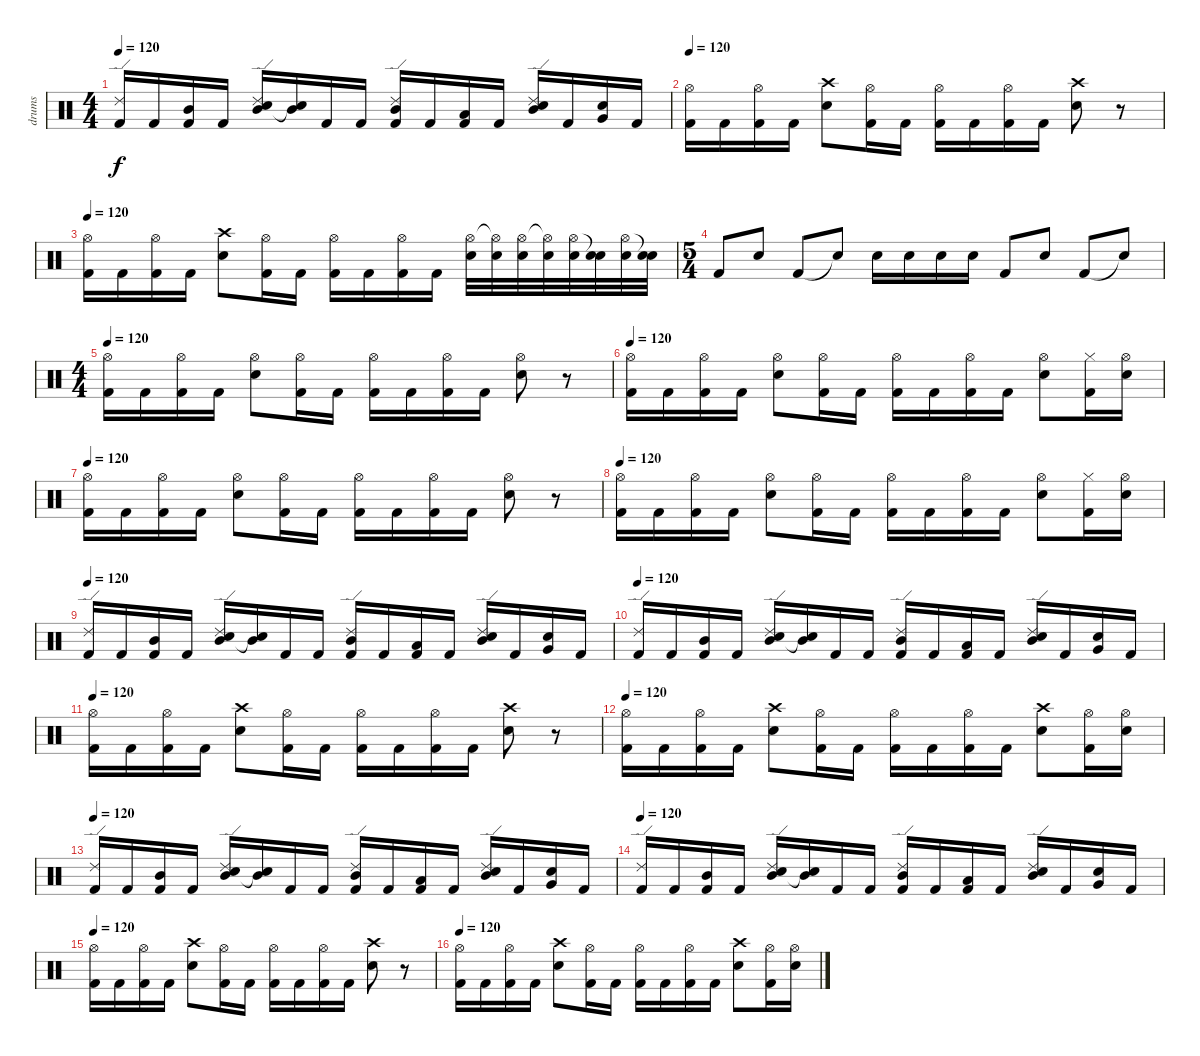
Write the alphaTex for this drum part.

\track ("drums" "drums") {instrument percussion}
\staff {score}
\articulation defaults
\ts (4 4)
\tempo 120
\clef neutral
\ks c
("Ride (edge) 2" "Kick (hit) 2").16{dy f} "Kick (hit) 2".16 ("Mid Tom (hit)" "Kick (hit) 2").16 "Kick (hit) 2".16 ("Ride (edge) 2" "Mid Tom (hit)" "Electric Snare (hit)").16 ("Mid Tom (hit)" "Snare (hit)"{t}).16 "Kick (hit) 2".16 "Kick (hit) 2".16 ("Ride (edge) 2" "Mid Tom (hit)" "Kick (hit) 2").16 "Kick (hit) 2".16 ("Low Tom (hit)" "Kick (hit) 2").16 "Kick (hit) 2".16 ("Ride (edge) 2" "Mid Tom (hit)" "Electric Snare (hit)").16 "Kick (hit) 2".16 ("Very Low Tom (hit)" "Electric Snare (hit)").16 "Kick (hit) 2".16 |
\tempo 120
("Hi-Hat (open)" "Kick (hit) 2").16 "Kick (hit) 2".16 ("Hi-Hat (open)" "Kick (hit) 2").16 "Kick (hit) 2".16 ("Crash high (hit)" "Electric Snare (hit)").8 ("Hi-Hat (open)" "Kick (hit) 2").16 "Kick (hit) 2".16 ("Hi-Hat (open)" "Kick (hit) 2").16 "Kick (hit) 2".16 ("Hi-Hat (open)" "Kick (hit) 2").16 "Kick (hit) 2".16 ("Crash high (hit)" "Electric Snare (hit)").8 r.8 |
\tempo 120
("Hi-Hat (open)" "Kick (hit) 2").16 "Kick (hit) 2".16 ("Hi-Hat (open)" "Kick (hit) 2").16 "Kick (hit) 2".16 ("Crash high (hit)" "Electric Snare (hit)").8 ("Hi-Hat (open)" "Kick (hit) 2").16 "Kick (hit) 2".16 ("Hi-Hat (open)" "Kick (hit) 2").16 "Kick (hit) 2".16 ("Hi-Hat (open)" "Kick (hit) 2").16 "Kick (hit) 2".16 ("Hi-Hat (open)" "Electric Snare (hit)").32 ("Hi-Hat (open)"{t} "Electric Snare (hit)").32 ("Hi-Hat (open)" "Electric Snare (hit)").32 ("Hi-Hat (open)"{t} "Electric Snare (hit)").32 ("Hi-Hat (open)" "Electric Snare (hit)").32 ("Snare (hit)"{t} "Electric Snare (hit)").32 ("Hi-Hat (open)" "Electric Snare (hit)").32 ("Snare (hit)"{t} "Electric Snare (hit)").32 |
\ts (5 4)
"Kick (hit) 2".8 "Electric Snare (hit)".8 "Kick (hit) 2".8 "Electric Snare (hit)"{t}.8 "Electric Snare (hit)".16 "Electric Snare (hit)".16 "Electric Snare (hit)".16 "Electric Snare (hit)".16 "Kick (hit) 2".8 "Electric Snare (hit)".8 "Kick (hit) 2".8 "Electric Snare (hit)"{t}.8 |
\ts (4 4)
\tempo 120
("Hi-Hat (open)" "Kick (hit) 2").16 "Kick (hit) 2".16 ("Hi-Hat (open)" "Kick (hit) 2").16 "Kick (hit) 2".16 ("Hi-Hat (open)" "Electric Snare (hit)").8 ("Hi-Hat (open)" "Kick (hit) 2").16 "Kick (hit) 2".16 ("Hi-Hat (open)" "Kick (hit) 2").16 "Kick (hit) 2".16 ("Hi-Hat (open)" "Kick (hit) 2").16 "Kick (hit) 2".16 ("Hi-Hat (open)" "Electric Snare (hit)").8 r.8 |
\tempo 120
("Hi-Hat (open)" "Kick (hit) 2").16 "Kick (hit) 2".16 ("Hi-Hat (open)" "Kick (hit) 2").16 "Kick (hit) 2".16 ("Hi-Hat (open)" "Electric Snare (hit)").8 ("Hi-Hat (open)" "Kick (hit) 2").16 "Kick (hit) 2".16 ("Hi-Hat (open)" "Kick (hit) 2").16 "Kick (hit) 2".16 ("Hi-Hat (open)" "Kick (hit) 2").16 "Kick (hit) 2".16 ("Hi-Hat (open)" "Electric Snare (hit)").8 ("Hi-Hat (closed)" "Kick (hit) 2").16 ("Hi-Hat (open)" "Electric Snare (hit)").16 |
\tempo 120
("Hi-Hat (open)" "Kick (hit) 2").16 "Kick (hit) 2".16 ("Hi-Hat (open)" "Kick (hit) 2").16 "Kick (hit) 2".16 ("Hi-Hat (open)" "Electric Snare (hit)").8 ("Hi-Hat (open)" "Kick (hit) 2").16 "Kick (hit) 2".16 ("Hi-Hat (open)" "Kick (hit) 2").16 "Kick (hit) 2".16 ("Hi-Hat (open)" "Kick (hit) 2").16 "Kick (hit) 2".16 ("Hi-Hat (open)" "Electric Snare (hit)").8 r.8 |
\tempo 120
("Hi-Hat (open)" "Kick (hit) 2").16 "Kick (hit) 2".16 ("Hi-Hat (open)" "Kick (hit) 2").16 "Kick (hit) 2".16 ("Hi-Hat (open)" "Electric Snare (hit)").8 ("Hi-Hat (open)" "Kick (hit) 2").16 "Kick (hit) 2".16 ("Hi-Hat (open)" "Kick (hit) 2").16 "Kick (hit) 2".16 ("Hi-Hat (open)" "Kick (hit) 2").16 "Kick (hit) 2".16 ("Hi-Hat (open)" "Electric Snare (hit)").8 ("Hi-Hat (closed)" "Kick (hit) 2").16 ("Hi-Hat (open)" "Electric Snare (hit)").16 |
\tempo 120
("Ride (edge) 2" "Kick (hit) 2").16 "Kick (hit) 2".16 ("Mid Tom (hit)" "Kick (hit) 2").16 "Kick (hit) 2".16 ("Ride (edge) 2" "Mid Tom (hit)" "Electric Snare (hit)").16 ("Mid Tom (hit)" "Snare (hit)"{t}).16 "Kick (hit) 2".16 "Kick (hit) 2".16 ("Ride (edge) 2" "Mid Tom (hit)" "Kick (hit) 2").16 "Kick (hit) 2".16 ("Low Tom (hit)" "Kick (hit) 2").16 "Kick (hit) 2".16 ("Ride (edge) 2" "Mid Tom (hit)" "Electric Snare (hit)").16 "Kick (hit) 2".16 ("Very Low Tom (hit)" "Electric Snare (hit)").16 "Kick (hit) 2".16 |
\tempo 120
("Ride (edge) 2" "Kick (hit) 2").16 "Kick (hit) 2".16 ("Mid Tom (hit)" "Kick (hit) 2").16 "Kick (hit) 2".16 ("Ride (edge) 2" "Mid Tom (hit)" "Electric Snare (hit)").16 ("Mid Tom (hit)" "Snare (hit)"{t}).16 "Kick (hit) 2".16 "Kick (hit) 2".16 ("Ride (edge) 2" "Mid Tom (hit)" "Kick (hit) 2").16 "Kick (hit) 2".16 ("Low Tom (hit)" "Kick (hit) 2").16 "Kick (hit) 2".16 ("Ride (edge) 2" "Mid Tom (hit)" "Electric Snare (hit)").16 "Kick (hit) 2".16 ("Very Low Tom (hit)" "Electric Snare (hit)").16 "Kick (hit) 2".16 |
\tempo 120
("Hi-Hat (open)" "Kick (hit) 2").16 "Kick (hit) 2".16 ("Hi-Hat (open)" "Kick (hit) 2").16 "Kick (hit) 2".16 ("Crash high (hit)" "Electric Snare (hit)").8 ("Hi-Hat (open)" "Kick (hit) 2").16 "Kick (hit) 2".16 ("Hi-Hat (open)" "Kick (hit) 2").16 "Kick (hit) 2".16 ("Hi-Hat (open)" "Kick (hit) 2").16 "Kick (hit) 2".16 ("Crash high (hit)" "Electric Snare (hit)").8 r.8 |
\tempo 120
("Hi-Hat (open)" "Kick (hit) 2").16 "Kick (hit) 2".16 ("Hi-Hat (open)" "Kick (hit) 2").16 "Kick (hit) 2".16 ("Crash high (hit)" "Electric Snare (hit)").8 ("Hi-Hat (open)" "Kick (hit) 2").16 "Kick (hit) 2".16 ("Hi-Hat (open)" "Kick (hit) 2").16 "Kick (hit) 2".16 ("Hi-Hat (open)" "Kick (hit) 2").16 "Kick (hit) 2".16 ("Crash high (hit)" "Electric Snare (hit)").8 ("Hi-Hat (open)" "Kick (hit) 2").16 ("Hi-Hat (open)" "Electric Snare (hit)").16 |
\tempo 120
("Ride (edge) 2" "Kick (hit) 2").16 "Kick (hit) 2".16 ("Mid Tom (hit)" "Kick (hit) 2").16 "Kick (hit) 2".16 ("Ride (edge) 2" "Mid Tom (hit)" "Electric Snare (hit)").16 ("Mid Tom (hit)" "Snare (hit)"{t}).16 "Kick (hit) 2".16 "Kick (hit) 2".16 ("Ride (edge) 2" "Mid Tom (hit)" "Kick (hit) 2").16 "Kick (hit) 2".16 ("Low Tom (hit)" "Kick (hit) 2").16 "Kick (hit) 2".16 ("Ride (edge) 2" "Mid Tom (hit)" "Electric Snare (hit)").16 "Kick (hit) 2".16 ("Very Low Tom (hit)" "Electric Snare (hit)").16 "Kick (hit) 2".16 |
\tempo 120
("Ride (edge) 2" "Kick (hit) 2").16 "Kick (hit) 2".16 ("Mid Tom (hit)" "Kick (hit) 2").16 "Kick (hit) 2".16 ("Ride (edge) 2" "Mid Tom (hit)" "Electric Snare (hit)").16 ("Mid Tom (hit)" "Snare (hit)"{t}).16 "Kick (hit) 2".16 "Kick (hit) 2".16 ("Ride (edge) 2" "Mid Tom (hit)" "Kick (hit) 2").16 "Kick (hit) 2".16 ("Low Tom (hit)" "Kick (hit) 2").16 "Kick (hit) 2".16 ("Ride (edge) 2" "Mid Tom (hit)" "Electric Snare (hit)").16 "Kick (hit) 2".16 ("Very Low Tom (hit)" "Electric Snare (hit)").16 "Kick (hit) 2".16 |
\tempo 120
("Hi-Hat (open)" "Kick (hit) 2").16 "Kick (hit) 2".16 ("Hi-Hat (open)" "Kick (hit) 2").16 "Kick (hit) 2".16 ("Crash high (hit)" "Electric Snare (hit)").8 ("Hi-Hat (open)" "Kick (hit) 2").16 "Kick (hit) 2".16 ("Hi-Hat (open)" "Kick (hit) 2").16 "Kick (hit) 2".16 ("Hi-Hat (open)" "Kick (hit) 2").16 "Kick (hit) 2".16 ("Crash high (hit)" "Electric Snare (hit)").8 r.8 |
\tempo 120
("Hi-Hat (open)" "Kick (hit) 2").16 "Kick (hit) 2".16 ("Hi-Hat (open)" "Kick (hit) 2").16 "Kick (hit) 2".16 ("Crash high (hit)" "Electric Snare (hit)").8 ("Hi-Hat (open)" "Kick (hit) 2").16 "Kick (hit) 2".16 ("Hi-Hat (open)" "Kick (hit) 2").16 "Kick (hit) 2".16 ("Hi-Hat (open)" "Kick (hit) 2").16 "Kick (hit) 2".16 ("Crash high (hit)" "Electric Snare (hit)").8 ("Hi-Hat (open)" "Kick (hit) 2").16 ("Hi-Hat (open)" "Electric Snare (hit)").16
